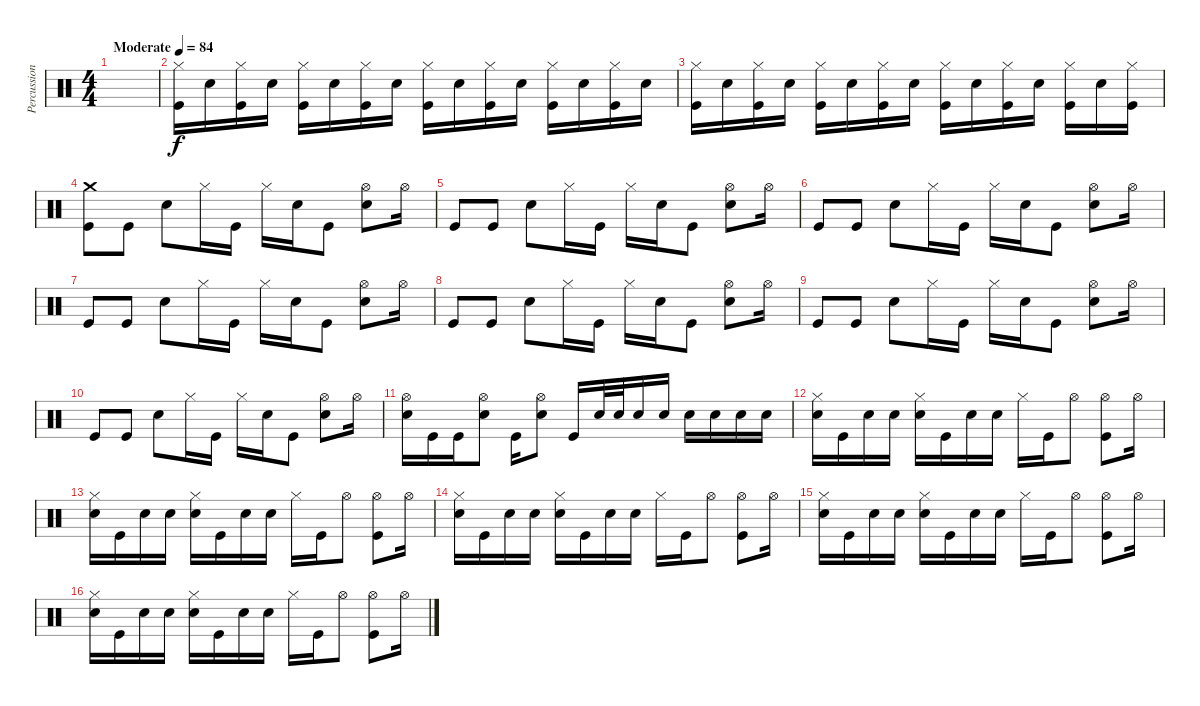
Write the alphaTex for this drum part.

\track ("Percussion" "Percussion") {instrument percussion}
\staff {score}
\articulation defaults
\ts (4 4)
\tempo (84 "Moderate")
\clef neutral
\ks c
|
("Hi-Hat (closed)" "Kick (hit)").16 "Snare (hit) 2".16 ("Hi-Hat (closed)" "Kick (hit)").16 "Snare (hit) 2".16 ("Hi-Hat (closed)" "Kick (hit)").16 "Snare (hit) 2".16 ("Hi-Hat (closed)" "Kick (hit)").16 "Snare (hit) 2".16 ("Hi-Hat (closed)" "Kick (hit)").16 "Snare (hit) 2".16 ("Hi-Hat (closed)" "Kick (hit)").16 "Snare (hit) 2".16 ("Hi-Hat (closed)" "Kick (hit)").16 "Snare (hit) 2".16 ("Hi-Hat (closed)" "Kick (hit)").16 "Snare (hit) 2".16 |
("Hi-Hat (closed)" "Kick (hit)").16 "Snare (hit) 2".16 ("Hi-Hat (closed)" "Kick (hit)").16 "Snare (hit) 2".16 ("Hi-Hat (closed)" "Kick (hit)").16 "Snare (hit) 2".16 ("Hi-Hat (closed)" "Kick (hit)").16 "Snare (hit) 2".16 ("Hi-Hat (closed)" "Kick (hit)").16 "Snare (hit) 2".16 ("Hi-Hat (closed)" "Kick (hit)").16 "Snare (hit) 2".16 ("Hi-Hat (closed)" "Kick (hit)").16 "Snare (hit) 2".16 ("Hi-Hat (closed)" "Kick (hit)").16 |
("Crash medium (hit)" "Kick (hit)").8 "Kick (hit)".8 "Snare (hit) 2".8 "Hi-Hat (closed)".16 "Kick (hit)".16 "Hi-Hat (closed)".16 "Snare (hit) 2".16 "Kick (hit)".8 ("Hi-Hat (open)" "Snare (hit) 2").8 "Hi-Hat (open)".16 |
"Kick (hit)".8 "Kick (hit)".8 "Snare (hit) 2".8 "Hi-Hat (closed)".16 "Kick (hit)".16 "Hi-Hat (closed)".16 "Snare (hit) 2".16 "Kick (hit)".8 ("Hi-Hat (open)" "Snare (hit) 2").8 "Hi-Hat (open)".16 |
"Kick (hit)".8 "Kick (hit)".8 "Snare (hit) 2".8 "Hi-Hat (closed)".16 "Kick (hit)".16 "Hi-Hat (closed)".16 "Snare (hit) 2".16 "Kick (hit)".8 ("Hi-Hat (open)" "Snare (hit) 2").8 "Hi-Hat (open)".16 |
"Kick (hit)".8 "Kick (hit)".8 "Snare (hit) 2".8 "Hi-Hat (closed)".16 "Kick (hit)".16 "Hi-Hat (closed)".16 "Snare (hit) 2".16 "Kick (hit)".8 ("Hi-Hat (open)" "Snare (hit) 2").8 "Hi-Hat (open)".16 |
"Kick (hit)".8 "Kick (hit)".8 "Snare (hit) 2".8 "Hi-Hat (closed)".16 "Kick (hit)".16 "Hi-Hat (closed)".16 "Snare (hit) 2".16 "Kick (hit)".8 ("Hi-Hat (open)" "Snare (hit) 2").8 "Hi-Hat (open)".16 |
"Kick (hit)".8 "Kick (hit)".8 "Snare (hit) 2".8 "Hi-Hat (closed)".16 "Kick (hit)".16 "Hi-Hat (closed)".16 "Snare (hit) 2".16 "Kick (hit)".8 ("Hi-Hat (open)" "Snare (hit) 2").8 "Hi-Hat (open)".16 |
"Kick (hit)".8 "Kick (hit)".8 "Snare (hit) 2".8 "Hi-Hat (closed)".16 "Kick (hit)".16 "Hi-Hat (closed)".16 "Snare (hit) 2".16 "Kick (hit)".8 ("Hi-Hat (open)" "Snare (hit) 2").8 "Hi-Hat (open)".16 |
("Hi-Hat (open)" "Snare (hit) 2").16 "Kick (hit)".16 "Kick (hit)".16 ("Hi-Hat (open)" "Snare (hit) 2").8 "Kick (hit)".16 ("Hi-Hat (open)" "Snare (hit) 2").8 "Kick (hit)".16 "Snare (hit) 2".32 "Snare (hit) 2".32 "Snare (hit) 2".16 "Snare (hit) 2".16 "Snare (hit) 2".16 "Snare (hit) 2".16 "Snare (hit) 2".16 "Snare (hit) 2".16 |
("Hi-Hat (closed)" "Snare (hit) 2").16 "Kick (hit)".16 "Snare (hit) 2".16 "Snare (hit) 2".16 ("Hi-Hat (closed)" "Snare (hit) 2").16 "Kick (hit)".16 "Snare (hit) 2".16 "Snare (hit) 2".16 "Hi-Hat (closed)".16 "Kick (hit)".16 "Hi-Hat (open)".8 ("Hi-Hat (open)" "Kick (hit)").8 "Hi-Hat (open)".16 |
("Hi-Hat (closed)" "Snare (hit) 2").16 "Kick (hit)".16 "Snare (hit) 2".16 "Snare (hit) 2".16 ("Hi-Hat (closed)" "Snare (hit) 2").16 "Kick (hit)".16 "Snare (hit) 2".16 "Snare (hit) 2".16 "Hi-Hat (closed)".16 "Kick (hit)".16 "Hi-Hat (open)".8 ("Hi-Hat (open)" "Kick (hit)").8 "Hi-Hat (open)".16 |
("Hi-Hat (closed)" "Snare (hit) 2").16 "Kick (hit)".16 "Snare (hit) 2".16 "Snare (hit) 2".16 ("Hi-Hat (closed)" "Snare (hit) 2").16 "Kick (hit)".16 "Snare (hit) 2".16 "Snare (hit) 2".16 "Hi-Hat (closed)".16 "Kick (hit)".16 "Hi-Hat (open)".8 ("Hi-Hat (open)" "Kick (hit)").8 "Hi-Hat (open)".16 |
("Hi-Hat (closed)" "Snare (hit) 2").16 "Kick (hit)".16 "Snare (hit) 2".16 "Snare (hit) 2".16 ("Hi-Hat (closed)" "Snare (hit) 2").16 "Kick (hit)".16 "Snare (hit) 2".16 "Snare (hit) 2".16 "Hi-Hat (closed)".16 "Kick (hit)".16 "Hi-Hat (open)".8 ("Hi-Hat (open)" "Kick (hit)").8 "Hi-Hat (open)".16 |
("Hi-Hat (closed)" "Snare (hit) 2").16 "Kick (hit)".16 "Snare (hit) 2".16 "Snare (hit) 2".16 ("Hi-Hat (closed)" "Snare (hit) 2").16 "Kick (hit)".16 "Snare (hit) 2".16 "Snare (hit) 2".16 "Hi-Hat (closed)".16 "Kick (hit)".16 "Hi-Hat (open)".8 ("Hi-Hat (open)" "Kick (hit)").8 "Hi-Hat (open)".16
